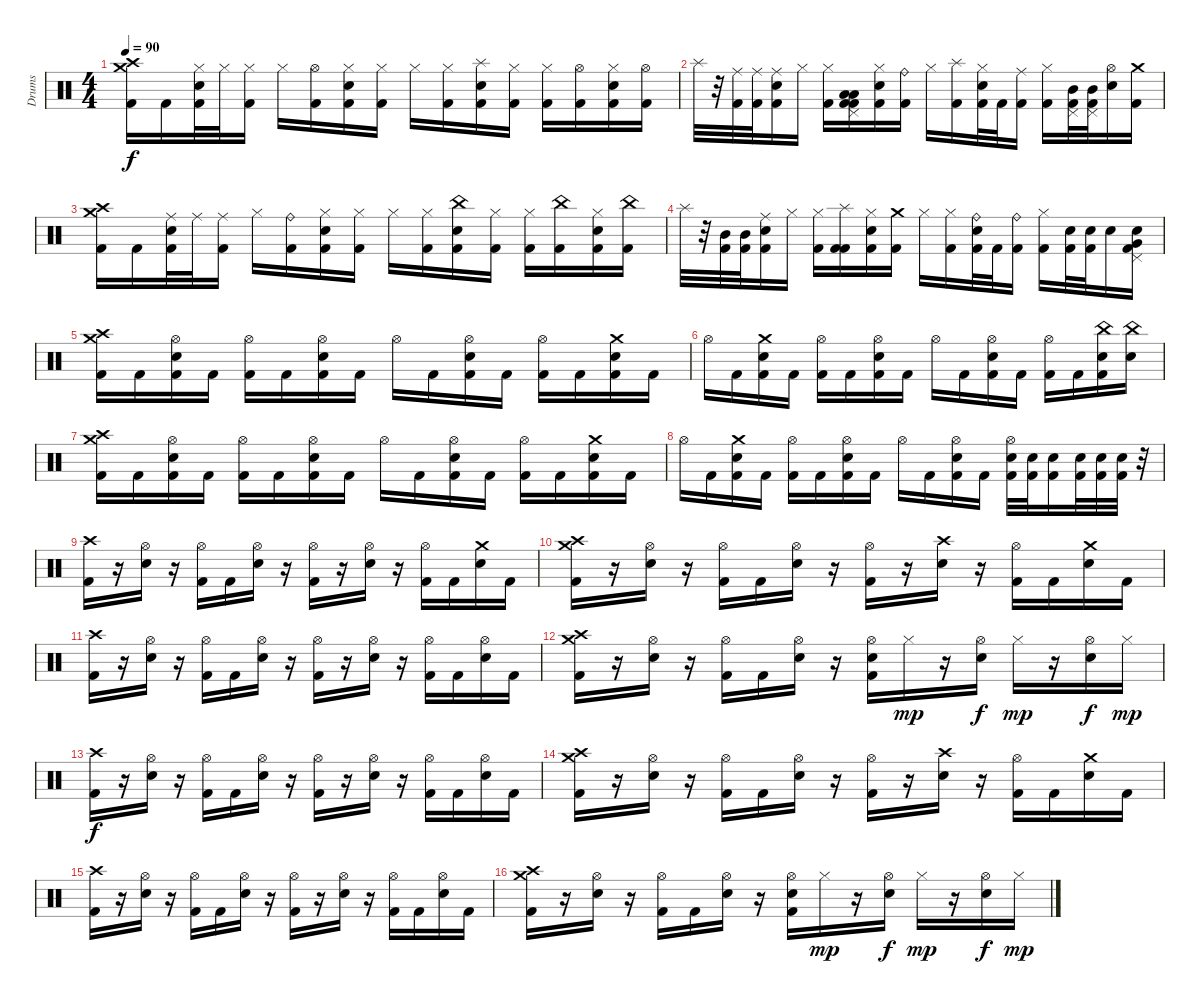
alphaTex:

\track ("Drums" "Drums") {instrument percussion}
\staff {score}
\articulation defaults
\ts (4 4)
\tempo 90
\clef neutral
\ks c
("Crash high (hit)" "Crash medium (hit)" "Kick (hit) 2").16{dy f} "Kick (hit) 2".16 ("Hi-Hat (closed)" "Snare (hit) 2" "Kick (hit) 2").32 "Hi-Hat (closed)".32 ("Hi-Hat (closed)" "Kick (hit) 2").16 "Hi-Hat (closed)".16 ("Hi-Hat (open)" "Kick (hit) 2").16 ("Hi-Hat (closed)" "Snare (hit) 2" "Kick (hit) 2").16 ("Hi-Hat (closed)" "Kick (hit) 2").16 "Hi-Hat (closed)".16 ("Hi-Hat (closed)" "Kick (hit) 2").16 ("Splash (hit)" "Snare (hit) 2" "Kick (hit) 2").16 ("Hi-Hat (closed)" "Kick (hit) 2").16 ("Hi-Hat (closed)" "Kick (hit) 2").16 ("Hi-Hat (open)" "Kick (hit) 2").16 ("Hi-Hat (closed)" "Snare (hit) 2" "Kick (hit) 2").16 ("Hi-Hat (open)" "Kick (hit) 2").16 |
"Splash (hit)".32 r.32 ("Ride (middle)" "Kick (hit) 2").32 ("Ride (middle)" "Kick (hit) 2").32 ("Ride (middle)" "Snare (hit) 2" "Kick (hit) 2").16 "Hi-Hat (closed)".16 ("Hi-Hat (closed)" "Kick (hit) 2").16 ("Pedal Hi-Hat (hit)" "Low Tom (hit)" "Low Tom (hit)" "Kick (hit) 2" "Kick (hit) 2").16 ("Hi-Hat (closed)" "Snare (hit) 2" "Kick (hit) 2").16 ("Ride (bell)" "Kick (hit) 2").16 "Hi-Hat (closed)".16 ("Splash (hit)" "Kick (hit) 2").16 ("Hi-Hat (closed)" "Snare (hit) 2" "Kick (hit) 2").32 "Kick (hit) 2".32 ("Ride (middle)" "Kick (hit) 2").16 ("Hi-Hat (closed)" "Kick (hit) 2").16 ("Pedal Hi-Hat (hit)" "Mid Tom (hit)" "Kick (hit) 2").32 ("Pedal Hi-Hat (hit)" "Mid Tom (hit)" "Kick (hit) 2").32 ("Hi-Hat (open)" "Snare (hit) 2").16 ("Crash medium (hit)" "Kick (hit) 2").16 |
("Crash high (hit)" "Crash medium (hit)" "Kick (hit) 2").16 "Kick (hit) 2".16 ("Ride (middle)" "Snare (hit) 2" "Kick (hit) 2").32 "Ride (middle)".32 ("Ride (middle)" "Kick (hit) 2").16 "Hi-Hat (closed)".16 ("Ride (bell)" "Kick (hit) 2").16 ("Hi-Hat (closed)" "Snare (hit) 2" "Kick (hit) 2").16 ("Hi-Hat (closed)" "Kick (hit) 2").16 "Hi-Hat (closed)".16 ("Hi-Hat (closed)" "Kick (hit) 2").16 ("China (hit)" "Snare (hit) 2" "Kick (hit) 2").16 ("Hi-Hat (closed)" "Kick (hit) 2").16 ("Hi-Hat (closed)" "Kick (hit) 2").16 ("China (hit)" "Kick (hit) 2").16 ("Hi-Hat (closed)" "Snare (hit) 2" "Kick (hit) 2").16 ("China (hit)" "Kick (hit) 2").16 |
"Splash (hit)".32 r.32 ("Mid Tom (hit)" "Kick (hit) 2").32 ("Mid Tom (hit)" "Kick (hit) 2").32 ("Ride (middle)" "Snare (hit) 2" "Kick (hit) 2").16 "Hi-Hat (closed)".16 ("Hi-Hat (closed)" "Kick (hit) 2").16 ("Splash (hit)" "Kick (hit) 2" "Kick (hit) 2").16 ("Hi-Hat (closed)" "Snare (hit) 2" "Kick (hit) 2").16 ("Crash medium (hit)" "Kick (hit) 2").16 "Hi-Hat (closed)".16 ("Hi-Hat (closed)" "Kick (hit) 2").16 ("Ride (bell)" "Snare (hit) 2" "Kick (hit) 2").32 "Kick (hit) 2".32 ("Ride (bell)" "Kick (hit) 2").16 ("Hi-Hat (closed)" "Kick (hit) 2").16 ("Snare (hit) 2" "Kick (hit) 2").32 ("Snare (hit) 2" "Kick (hit) 2").32 "Snare (hit) 2".16 ("Pedal Hi-Hat (hit)" "Very Low Tom (hit)" "Snare (hit) 2" "Kick (hit) 2").16 |
("Crash high (hit)" "Crash medium (hit)" "Kick (hit) 2").16 "Kick (hit) 2".16 ("Hi-Hat (open)" "Snare (hit) 2" "Kick (hit) 2").16 "Kick (hit) 2".16 ("Hi-Hat (open)" "Kick (hit) 2").16 "Kick (hit) 2".16 ("Hi-Hat (open)" "Snare (hit) 2" "Kick (hit) 2").16 "Kick (hit) 2".16 "Hi-Hat (open)".16 "Kick (hit) 2".16 ("Hi-Hat (open)" "Snare (hit) 2" "Kick (hit) 2").16 "Kick (hit) 2".16 ("Hi-Hat (open)" "Kick (hit) 2").16 "Kick (hit) 2".16 ("Crash medium (hit)" "Snare (hit) 2" "Kick (hit) 2").16 "Kick (hit) 2".16 |
"Hi-Hat (open)".16 "Kick (hit) 2".16 ("Crash medium (hit)" "Snare (hit) 2" "Kick (hit) 2").16 "Kick (hit) 2".16 ("Hi-Hat (open)" "Kick (hit) 2").16 "Kick (hit) 2".16 ("Hi-Hat (open)" "Snare (hit) 2" "Kick (hit) 2").16 "Kick (hit) 2".16 "Hi-Hat (open)".16 "Kick (hit) 2".16 ("Hi-Hat (open)" "Snare (hit) 2" "Kick (hit) 2").16 "Kick (hit) 2".16 ("Hi-Hat (open)" "Kick (hit) 2").16 "Kick (hit) 2".16 ("China (hit)" "Snare (hit) 2" "Kick (hit) 2").16 ("China (hit)" "Snare (hit) 2").16 |
("Crash high (hit)" "Crash medium (hit)" "Kick (hit) 2").16 "Kick (hit) 2".16 ("Hi-Hat (open)" "Snare (hit) 2" "Kick (hit) 2").16 "Kick (hit) 2".16 ("Hi-Hat (open)" "Kick (hit) 2").16 "Kick (hit) 2".16 ("Hi-Hat (open)" "Snare (hit) 2" "Kick (hit) 2").16 "Kick (hit) 2".16 "Hi-Hat (open)".16 "Kick (hit) 2".16 ("Hi-Hat (open)" "Snare (hit) 2" "Kick (hit) 2").16 "Kick (hit) 2".16 ("Hi-Hat (open)" "Kick (hit) 2").16 "Kick (hit) 2".16 ("Crash medium (hit)" "Snare (hit) 2" "Kick (hit) 2").16 "Kick (hit) 2".16 |
"Hi-Hat (open)".16 "Kick (hit) 2".16 ("Crash medium (hit)" "Snare (hit) 2" "Kick (hit) 2").16 "Kick (hit) 2".16 ("Hi-Hat (open)" "Kick (hit) 2").16 "Kick (hit) 2".16 ("Hi-Hat (open)" "Snare (hit) 2" "Kick (hit) 2").16 "Kick (hit) 2".16 "Hi-Hat (open)".16 "Kick (hit) 2".16 ("Hi-Hat (open)" "Snare (hit) 2" "Kick (hit) 2").16 "Kick (hit) 2".16 ("Hi-Hat (open)" "Snare (hit) 2" "Kick (hit) 2").32 ("Snare (hit) 2" "Kick (hit) 2").32 ("Snare (hit) 2" "Kick (hit) 2").16 ("Snare (hit) 2" "Kick (hit) 2").32 ("Snare (hit) 2" "Kick (hit) 2").32 ("Snare (hit) 2" "Kick (hit) 2").32 r.32 |
("Crash high (hit)" "Kick (hit) 2").16 r.16 ("Hi-Hat (open)" "Snare (hit) 2").16 r.16 ("Hi-Hat (open)" "Kick (hit) 2").16 "Kick (hit) 2".16 ("Hi-Hat (open)" "Snare (hit) 2").16 r.16 ("Hi-Hat (open)" "Kick (hit) 2").16 r.16 ("Hi-Hat (open)" "Snare (hit) 2").16 r.16 ("Hi-Hat (open)" "Kick (hit) 2").16 "Kick (hit) 2".16 ("Crash medium (hit)" "Snare (hit) 2").16 "Kick (hit) 2".16 |
("Crash medium (hit)" "Crash high (hit)" "Kick (hit) 2").16 r.16 ("Hi-Hat (open)" "Snare (hit) 2").16 r.16 ("Hi-Hat (open)" "Kick (hit) 2").16 "Kick (hit) 2".16 ("Hi-Hat (open)" "Snare (hit) 2").16 r.16 ("Hi-Hat (open)" "Kick (hit) 2").16 r.16 ("Crash high (hit)" "Snare (hit) 2").16 r.16 ("Hi-Hat (open)" "Kick (hit) 2").16 "Kick (hit) 2".16 ("Crash medium (hit)" "Snare (hit) 2").16 "Kick (hit) 2".16 |
("Crash high (hit)" "Kick (hit) 2").16 r.16 ("Hi-Hat (open)" "Snare (hit) 2").16 r.16 ("Hi-Hat (open)" "Kick (hit) 2").16 "Kick (hit) 2".16 ("Hi-Hat (open)" "Snare (hit) 2").16 r.16 ("Hi-Hat (open)" "Kick (hit) 2").16 r.16 ("Hi-Hat (open)" "Snare (hit) 2").16 r.16 ("Hi-Hat (open)" "Kick (hit) 2").16 "Kick (hit) 2".16 ("Hi-Hat (open)" "Snare (hit) 2").16 "Kick (hit) 2".16 |
("Crash medium (hit)" "Crash high (hit)" "Kick (hit) 2").16 r.16 ("Hi-Hat (open)" "Snare (hit) 2").16 r.16 ("Hi-Hat (open)" "Kick (hit) 2").16 "Kick (hit) 2".16 ("Hi-Hat (open)" "Snare (hit) 2").16 r.16 ("Hi-Hat (open)" "Snare (hit) 2" "Kick (hit) 2").16 "Hi-Hat (closed)".16{dy mp} r.16 ("Hi-Hat (open)" "Snare (hit) 2").16{dy f} "Hi-Hat (closed)".16{dy mp} r.16 ("Hi-Hat (open)" "Snare (hit) 2").16{dy f} "Hi-Hat (closed)".16{dy mp} |
("Crash high (hit)" "Kick (hit) 2").16{dy f} r.16 ("Hi-Hat (open)" "Snare (hit) 2").16 r.16 ("Hi-Hat (open)" "Kick (hit) 2").16 "Kick (hit) 2".16 ("Hi-Hat (open)" "Snare (hit) 2").16 r.16 ("Hi-Hat (open)" "Kick (hit) 2").16 r.16 ("Hi-Hat (open)" "Snare (hit) 2").16 r.16 ("Hi-Hat (open)" "Kick (hit) 2").16 "Kick (hit) 2".16 ("Hi-Hat (open)" "Snare (hit) 2").16 "Kick (hit) 2".16 |
("Crash medium (hit)" "Crash high (hit)" "Kick (hit) 2").16 r.16 ("Hi-Hat (open)" "Snare (hit) 2").16 r.16 ("Hi-Hat (open)" "Kick (hit) 2").16 "Kick (hit) 2".16 ("Hi-Hat (open)" "Snare (hit) 2").16 r.16 ("Hi-Hat (open)" "Kick (hit) 2").16 r.16 ("Crash high (hit)" "Snare (hit) 2").16 r.16 ("Hi-Hat (open)" "Kick (hit) 2").16 "Kick (hit) 2".16 ("Crash medium (hit)" "Snare (hit) 2").16 "Kick (hit) 2".16 |
("Crash high (hit)" "Kick (hit) 2").16 r.16 ("Hi-Hat (open)" "Snare (hit) 2").16 r.16 ("Hi-Hat (open)" "Kick (hit) 2").16 "Kick (hit) 2".16 ("Hi-Hat (open)" "Snare (hit) 2").16 r.16 ("Hi-Hat (open)" "Kick (hit) 2").16 r.16 ("Hi-Hat (open)" "Snare (hit) 2").16 r.16 ("Hi-Hat (open)" "Kick (hit) 2").16 "Kick (hit) 2".16 ("Hi-Hat (open)" "Snare (hit) 2").16 "Kick (hit) 2".16 |
("Crash medium (hit)" "Crash high (hit)" "Kick (hit) 2").16 r.16 ("Hi-Hat (open)" "Snare (hit) 2").16 r.16 ("Hi-Hat (open)" "Kick (hit) 2").16 "Kick (hit) 2".16 ("Hi-Hat (open)" "Snare (hit) 2").16 r.16 ("Hi-Hat (open)" "Snare (hit) 2" "Kick (hit) 2").16 "Hi-Hat (closed)".16{dy mp} r.16 ("Hi-Hat (open)" "Snare (hit) 2").16{dy f} "Hi-Hat (closed)".16{dy mp} r.16 ("Hi-Hat (open)" "Snare (hit) 2").16{dy f} "Hi-Hat (closed)".16{dy mp}
